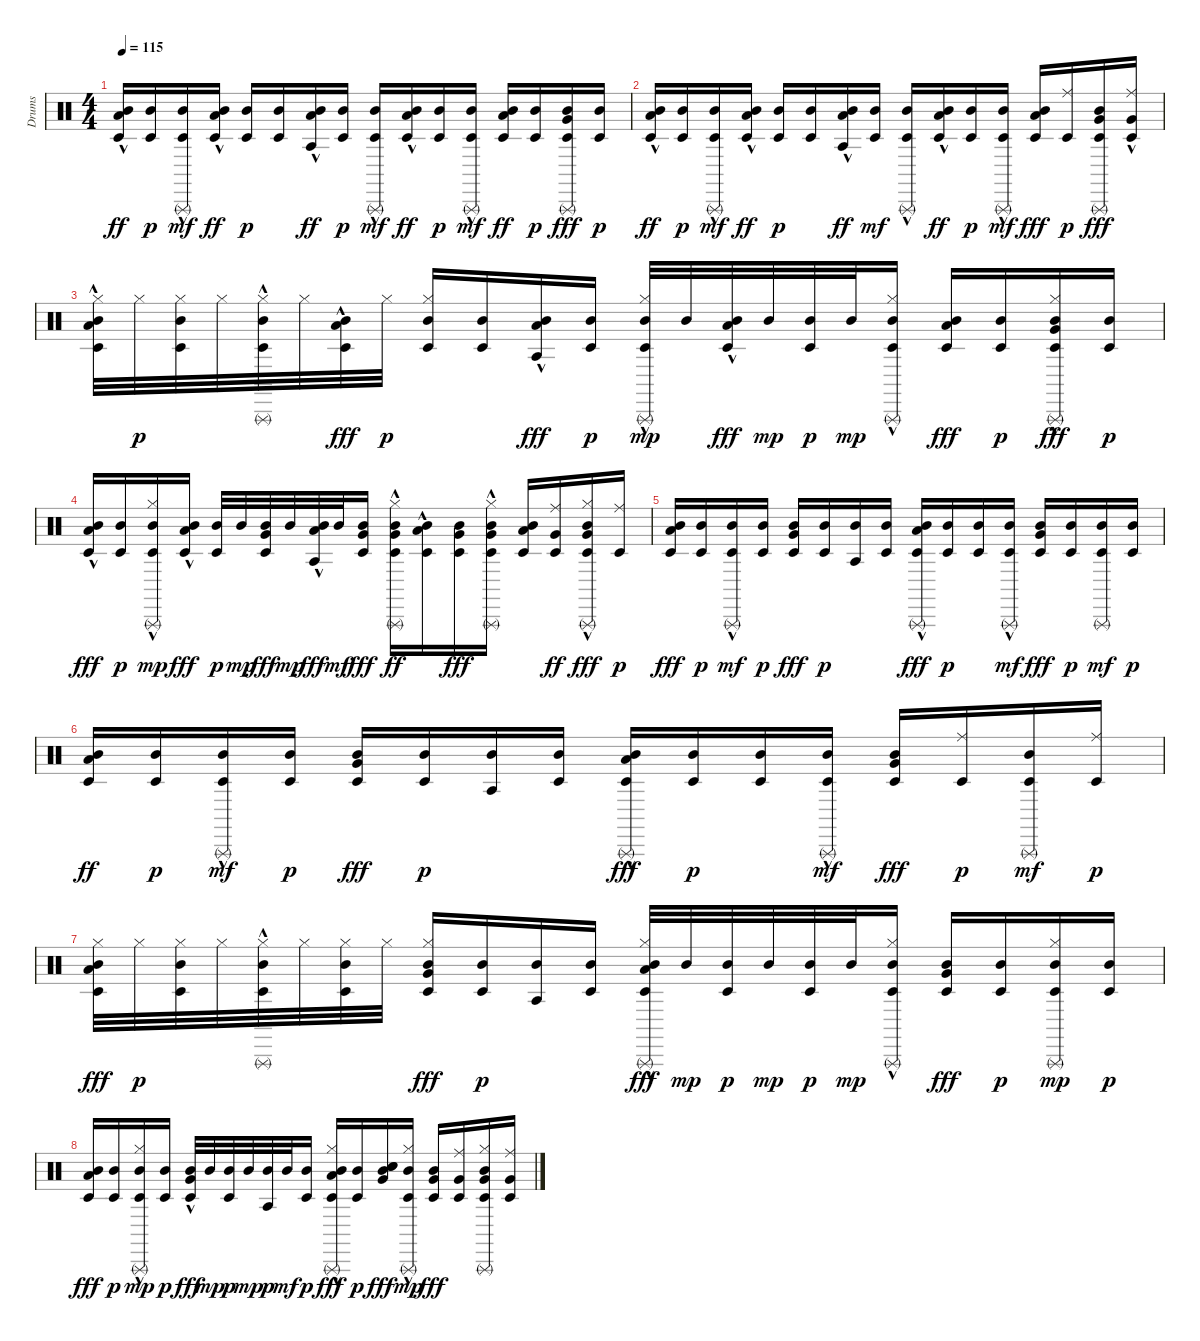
\track ("Drums" "Drums") {instrument percussion}
\staff {score}
\articulation defaults
\ts (4 4)
\tempo 115
\clef neutral
\ks c
("Mid Tom (hit)" "Timbale low (hit)" "Low Floor Tom (hit)"{hac}).16{dy ff} ("Mid Tom (hit)" "Timbale low (hit)").16{dy p} ("Mid Tom (hit)" "Timbale low (hit)" "Triangle (rnute)"{hac}).16{dy mf} ("Mid Tom (hit)" "Timbale low (hit)" "Low Floor Tom (hit)"{hac}).16{dy ff} ("Mid Tom (hit)" "Timbale low (hit)").16{dy p} ("Mid Tom (hit)" "Timbale low (hit)").16 ("Mid Tom (hit)" "Agogo tow (hit)" "Low Floor Tom (hit)"{hac}).16{dy ff} ("Mid Tom (hit)" "Timbale low (hit)").16{dy p} ("Mid Tom (hit)" "Timbale low (hit)" "Triangle (rnute)"{hac}).16{dy mf} ("Mid Tom (hit)" "Timbale low (hit)" "Low Floor Tom (hit)"{hac}).16{dy ff} ("Mid Tom (hit)" "Timbale low (hit)").16{dy p} ("Mid Tom (hit)" "Timbale low (hit)" "Triangle (rnute)"{hac}).16{dy mf} ("Mid Tom (hit)" "Timbale low (hit)" "Low Floor Tom (hit)").16{dy ff} ("Mid Tom (hit)" "Timbale low (hit)").16{dy p} ("Mid Tom (hit)" "Timbale low (hit)" "Triangle (rnute)" "Very Low Tom (hit)").16{dy fff} ("Mid Tom (hit)" "Timbale low (hit)").16{dy p} |
("Mid Tom (hit)" "Timbale low (hit)" "Low Floor Tom (hit)"{hac}).16{dy ff} ("Mid Tom (hit)" "Timbale low (hit)").16{dy p} ("Mid Tom (hit)" "Timbale low (hit)" "Triangle (rnute)"{hac}).16{dy mf} ("Mid Tom (hit)" "Timbale low (hit)" "Low Floor Tom (hit)"{hac}).16{dy ff} ("Mid Tom (hit)" "Timbale low (hit)").16{dy p} ("Mid Tom (hit)" "Timbale low (hit)").16 ("Mid Tom (hit)" "Agogo tow (hit)" "Low Floor Tom (hit)"{hac}).16{dy ff} ("Timbale low (hit)" "Mid Tom (hit)").16{dy mf} ("Mid Tom (hit)" "Timbale low (hit)" "Triangle (rnute)"{hac}).16 ("Mid Tom (hit)" "Timbale low (hit)" "Low Floor Tom (hit)"{hac}).16{dy ff} ("Mid Tom (hit)" "Timbale low (hit)").16{dy p} ("Mid Tom (hit)" "Timbale low (hit)" "Triangle (rnute)"{hac}).16{dy mf} ("Mid Tom (hit)" "Timbale low (hit)" "Low Floor Tom (hit)").16{dy fff} ("Ride (middle)" "Timbale low (hit)").16{dy p} ("Mid Tom (hit)" "Timbale low (hit)" "Triangle (rnute)" "Very Low Tom (hit)").16{dy fff} ("Ride (middle)" "Timbale low (hit)" "Very Low Tom (hit)"{hac}).16 |
("Mid Tom (hit)" "Timbale low (hit)" "Hi-Hat (closed)" "Low Floor Tom (hit)"{hac}).32 "Hi-Hat (closed)".32{dy p} ("Mid Tom (hit)" "Timbale low (hit)" "Hi-Hat (closed)").32 "Hi-Hat (closed)".32 ("Mid Tom (hit)" "Timbale low (hit)" "Triangle (rnute)"{hac} "Hi-Hat (closed)").32 "Hi-Hat (closed)".32 ("Mid Tom (hit)" "Timbale low (hit)" "Low Floor Tom (hit)"{hac}).32{dy fff} "Hi-Hat (closed)".32{dy p} ("Mid Tom (hit)" "Timbale low (hit)" "Hi-Hat (closed)").16 ("Mid Tom (hit)" "Timbale low (hit)").16 ("Mid Tom (hit)" "Agogo tow (hit)" "Low Floor Tom (hit)"{hac}).16{dy fff} ("Mid Tom (hit)" "Timbale low (hit)").16{dy p} ("Mid Tom (hit)" "Timbale low (hit)" "Triangle (rnute)"{hac} "Hi-Hat (closed)"{hac}).32{dy mp} "Mid Tom (hit)".32 ("Mid Tom (hit)" "Timbale low (hit)" "Low Floor Tom (hit)"{hac}).32{dy fff} "Mid Tom (hit)".32{dy mp} ("Mid Tom (hit)" "Timbale low (hit)").32{dy p} "Mid Tom (hit)".32{dy mp} ("Mid Tom (hit)" "Timbale low (hit)" "Triangle (rnute)"{hac} "Hi-Hat (closed)"{hac}).16 ("Mid Tom (hit)" "Timbale low (hit)" "Low Floor Tom (hit)").16{dy fff} ("Mid Tom (hit)" "Timbale low (hit)").16{dy p} ("Mid Tom (hit)" "Timbale low (hit)" "Triangle (rnute)" "Hi-Hat (closed)" "Very Low Tom (hit)"{hac}).16{dy fff} ("Mid Tom (hit)" "Timbale low (hit)").16{dy p} |
("Mid Tom (hit)" "Timbale low (hit)" "Low Floor Tom (hit)"{hac}).16{dy fff} ("Mid Tom (hit)" "Timbale low (hit)").16{dy p} ("Mid Tom (hit)" "Timbale low (hit)" "Triangle (rnute)"{hac} "Hi-Hat (closed)"{hac}).16{dy mp} ("Mid Tom (hit)" "Timbale low (hit)" "Low Floor Tom (hit)"{hac}).16{dy fff} ("Mid Tom (hit)" "Timbale low (hit)").32{dy p} "Mid Tom (hit)".32{dy mp} ("Mid Tom (hit)" "Timbale low (hit)" "Very Low Tom (hit)").32{dy fff} "Mid Tom (hit)".32{dy mp} ("Mid Tom (hit)" "Agogo tow (hit)" "Low Floor Tom (hit)"{hac}).32{dy fff} "Mid Tom (hit)".32{dy mf} ("Mid Tom (hit)" "Timbale low (hit)" "Very Low Tom (hit)").16{dy fff} ("Mid Tom (hit)" "Timbale low (hit)" "Triangle (rnute)"{hac} "Hi-Hat (closed)"{hac} "Very Low Tom (hit)").16{dy ff} ("Mid Tom (hit)" "Timbale low (hit)" "Low Floor Tom (hit)"{hac}).16 ("Mid Tom (hit)" "Timbale low (hit)" "Very Low Tom (hit)").16{dy fff} ("Mid Tom (hit)" "Timbale low (hit)" "Triangle (rnute)"{hac} "Hi-Hat (closed)"{hac} "Very Low Tom (hit)").16 ("Mid Tom (hit)" "Timbale low (hit)" "Low Floor Tom (hit)").16 ("Ride (middle)" "Timbale low (hit)" "Very Low Tom (hit)").16{dy ff} ("Mid Tom (hit)" "Timbale low (hit)" "Triangle (rnute)" "Hi-Hat (closed)" "Very Low Tom (hit)"{hac}).16{dy fff} ("Ride (middle)" "Timbale low (hit)").16{dy p} |
("Mid Tom (hit)" "Timbale low (hit)" "Low Floor Tom (hit)").16{dy fff} ("Mid Tom (hit)" "Timbale low (hit)").16{dy p} ("Mid Tom (hit)" "Timbale low (hit)" "Triangle (rnute)"{hac}).16{dy mf} ("Mid Tom (hit)" "Timbale low (hit)").16{dy p} ("Mid Tom (hit)" "Timbale low (hit)" "Very Low Tom (hit)").16{dy fff} ("Mid Tom (hit)" "Timbale low (hit)").16{dy p} ("Mid Tom (hit)" "Agogo tow (hit)").16 ("Mid Tom (hit)" "Timbale low (hit)").16 ("Mid Tom (hit)" "Timbale low (hit)" "Triangle (rnute)"{hac} "Low Floor Tom (hit)").16{dy fff} ("Mid Tom (hit)" "Timbale low (hit)").16{dy p} ("Mid Tom (hit)" "Timbale low (hit)").16 ("Mid Tom (hit)" "Timbale low (hit)" "Triangle (rnute)"{hac}).16{dy mf} ("Mid Tom (hit)" "Timbale low (hit)" "Very Low Tom (hit)").16{dy fff} ("Mid Tom (hit)" "Timbale low (hit)").16{dy p} ("Mid Tom (hit)" "Timbale low (hit)" "Triangle (rnute)").16{dy mf} ("Mid Tom (hit)" "Timbale low (hit)").16{dy p} |
("Mid Tom (hit)" "Timbale low (hit)" "Low Floor Tom (hit)").16{dy ff} ("Mid Tom (hit)" "Timbale low (hit)").16{dy p} ("Mid Tom (hit)" "Timbale low (hit)" "Triangle (rnute)"{hac}).16{dy mf} ("Mid Tom (hit)" "Timbale low (hit)").16{dy p} ("Mid Tom (hit)" "Timbale low (hit)" "Very Low Tom (hit)").16{dy fff} ("Mid Tom (hit)" "Timbale low (hit)").16{dy p} ("Mid Tom (hit)" "Agogo tow (hit)").16 ("Mid Tom (hit)" "Timbale low (hit)").16 ("Mid Tom (hit)" "Timbale low (hit)" "Triangle (rnute)"{hac} "Low Floor Tom (hit)").16{dy fff} ("Mid Tom (hit)" "Timbale low (hit)").16{dy p} ("Mid Tom (hit)" "Timbale low (hit)").16 ("Mid Tom (hit)" "Timbale low (hit)" "Triangle (rnute)"{hac}).16{dy mf} ("Mid Tom (hit)" "Timbale low (hit)" "Very Low Tom (hit)").16{dy fff} ("Ride (middle)" "Timbale low (hit)").16{dy p} ("Mid Tom (hit)" "Timbale low (hit)" "Triangle (rnute)").16{dy mf} ("Ride (middle)" "Timbale low (hit)").16{dy p} |
("Mid Tom (hit)" "Timbale low (hit)" "Hi-Hat (closed)" "Low Floor Tom (hit)").32{dy fff} "Hi-Hat (closed)".32{dy p} ("Mid Tom (hit)" "Timbale low (hit)" "Hi-Hat (closed)").32 "Hi-Hat (closed)".32 ("Mid Tom (hit)" "Timbale low (hit)" "Triangle (rnute)"{hac} "Hi-Hat (closed)").32 "Hi-Hat (closed)".32 ("Mid Tom (hit)" "Timbale low (hit)" "Hi-Hat (closed)").32 "Hi-Hat (closed)".32 ("Mid Tom (hit)" "Timbale low (hit)" "Hi-Hat (closed)" "Very Low Tom (hit)").16{dy fff} ("Mid Tom (hit)" "Timbale low (hit)").16{dy p} ("Mid Tom (hit)" "Agogo tow (hit)").16 ("Mid Tom (hit)" "Timbale low (hit)").16 ("Mid Tom (hit)" "Timbale low (hit)" "Triangle (rnute)"{hac} "Hi-Hat (closed)"{hac} "Low Floor Tom (hit)").32{dy fff} "Mid Tom (hit)".32{dy mp} ("Mid Tom (hit)" "Timbale low (hit)").32{dy p} "Mid Tom (hit)".32{dy mp} ("Mid Tom (hit)" "Timbale low (hit)").32{dy p} "Mid Tom (hit)".32{dy mp} ("Mid Tom (hit)" "Timbale low (hit)" "Triangle (rnute)"{hac} "Hi-Hat (closed)"{hac}).16 ("Mid Tom (hit)" "Timbale low (hit)" "Very Low Tom (hit)").16{dy fff} ("Mid Tom (hit)" "Timbale low (hit)").16{dy p} ("Mid Tom (hit)" "Timbale low (hit)" "Triangle (rnute)" "Hi-Hat (closed)").16{dy mp} ("Mid Tom (hit)" "Timbale low (hit)").16{dy p} |
("Mid Tom (hit)" "Timbale low (hit)" "Low Floor Tom (hit)").16{dy fff} ("Mid Tom (hit)" "Timbale low (hit)").16{dy p} ("Mid Tom (hit)" "Timbale low (hit)" "Triangle (rnute)"{hac} "Hi-Hat (closed)"{hac}).16{dy mp} ("Mid Tom (hit)" "Timbale low (hit)").16{dy p} ("Mid Tom (hit)" "Timbale low (hit)" "Very Low Tom (hit)"{hac}).32{dy fff} "Mid Tom (hit)".32{dy mp} ("Mid Tom (hit)" "Timbale low (hit)").32{dy p} "Mid Tom (hit)".32{dy mp} ("Mid Tom (hit)" "Agogo tow (hit)").32{dy p} "Mid Tom (hit)".32{dy mf} ("Mid Tom (hit)" "Timbale low (hit)").16{dy p} ("Mid Tom (hit)" "Timbale low (hit)" "Triangle (rnute)"{hac} "Hi-Hat (closed)"{hac} "Low Floor Tom (hit)").16{dy fff} ("Mid Tom (hit)" "Timbale low (hit)").16{dy p} ("Mid Tom (hit)" "Snare (hit)" "Snare (hit)" "Very Low Tom (hit)").16{dy fff} ("Mid Tom (hit)" "Timbale low (hit)" "Triangle (rnute)"{hac} "Hi-Hat (closed)"{hac}).16{dy mp} ("Mid Tom (hit)" "Timbale low (hit)" "Very Low Tom (hit)").16{dy fff} ("Ride (middle)" "Timbale low (hit)" "Very Low Tom (hit)").16 ("Mid Tom (hit)" "Timbale low (hit)" "Triangle (rnute)" "Hi-Hat (closed)" "Very Low Tom (hit)").16 ("Ride (middle)" "Timbale low (hit)" "Very Low Tom (hit)").16
